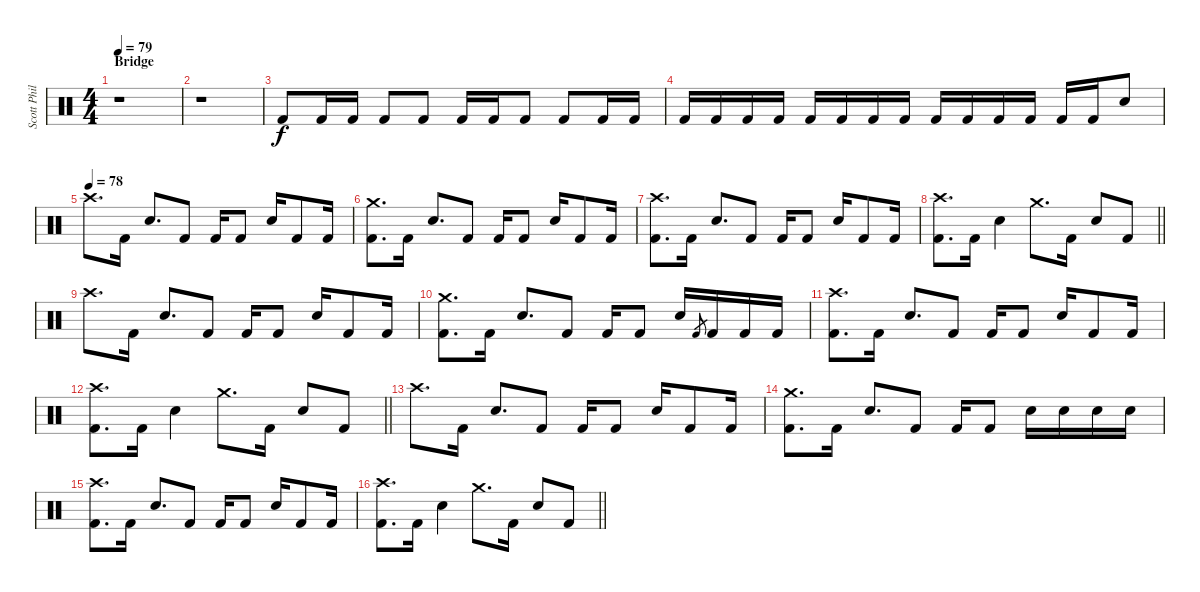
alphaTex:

\track ("Scott Phillips (Drums)" "Scott Phil") {instrument percussion}
\staff {score}
\articulation defaults
\ts (4 4)
\section ("" "Bridge")
\tempo 79
\clef neutral
\ks c
r.1{dy f} |
r.1 |
"Kick (hit) 2".8 "Kick (hit) 2".16 "Kick (hit) 2".16 "Kick (hit) 2".8 "Kick (hit) 2".8 "Kick (hit) 2".16 "Kick (hit) 2".16 "Kick (hit) 2".8 "Kick (hit) 2".8 "Kick (hit) 2".16 "Kick (hit) 2".16 |
"Kick (hit) 2".16 "Kick (hit) 2".16 "Kick (hit) 2".16 "Kick (hit) 2".16 "Kick (hit) 2".16 "Kick (hit) 2".16 "Kick (hit) 2".16 "Kick (hit) 2".16 "Kick (hit) 2".16 "Kick (hit) 2".16 "Kick (hit) 2".16 "Kick (hit) 2".16 "Kick (hit) 2".16 "Kick (hit) 2".16 "Electric Snare (hit)".8 |
\tempo (78)
"Crash high (hit)".8{d} "Kick (hit) 2".16 "Electric Snare (hit)".8{d} "Kick (hit) 2".8 "Kick (hit) 2".16 "Kick (hit) 2".8 "Electric Snare (hit)".16 "Kick (hit) 2".8 "Kick (hit) 2".16 |
("Crash medium (hit)" "Kick (hit) 2").8{d} "Kick (hit) 2".16 "Electric Snare (hit)".8{d} "Kick (hit) 2".8 "Kick (hit) 2".16 "Kick (hit) 2".8 "Electric Snare (hit)".16 "Kick (hit) 2".8 "Kick (hit) 2".16 |
("Crash high (hit)" "Kick (hit) 2").8{d} "Kick (hit) 2".16 "Electric Snare (hit)".8{d} "Kick (hit) 2".8 "Kick (hit) 2".16 "Kick (hit) 2".8 "Electric Snare (hit)".16 "Kick (hit) 2".8 "Kick (hit) 2".16 |
\barLineRight lightlight
("Crash high (hit)" "Kick (hit) 2").8{d} "Kick (hit) 2".16 "Electric Snare (hit)".4 "Crash medium (hit)".8{d} "Kick (hit) 2".16 "Electric Snare (hit)".8 "Kick (hit) 2".8 |
"Crash high (hit)".8{d} "Kick (hit) 2".16 "Electric Snare (hit)".8{d} "Kick (hit) 2".8 "Kick (hit) 2".16 "Kick (hit) 2".8 "Electric Snare (hit)".16 "Kick (hit) 2".8 "Kick (hit) 2".16 |
("Crash medium (hit)" "Kick (hit) 2").8{d} "Kick (hit) 2".16 "Electric Snare (hit)".8{d} "Kick (hit) 2".8 "Kick (hit) 2".16 "Kick (hit) 2".8 "Electric Snare (hit)".16 "Kick (hit) 2".8{gr} "Kick (hit) 2".16 "Kick (hit) 2".16 "Kick (hit) 2".16 |
("Crash high (hit)" "Kick (hit) 2").8{d} "Kick (hit) 2".16 "Electric Snare (hit)".8{d} "Kick (hit) 2".8 "Kick (hit) 2".16 "Kick (hit) 2".8 "Electric Snare (hit)".16 "Kick (hit) 2".8 "Kick (hit) 2".16 |
\barLineRight lightlight
("Crash high (hit)" "Kick (hit) 2").8{d} "Kick (hit) 2".16 "Electric Snare (hit)".4 "Crash medium (hit)".8{d} "Kick (hit) 2".16 "Electric Snare (hit)".8 "Kick (hit) 2".8 |
"Crash high (hit)".8{d} "Kick (hit) 2".16 "Electric Snare (hit)".8{d} "Kick (hit) 2".8 "Kick (hit) 2".16 "Kick (hit) 2".8 "Electric Snare (hit)".16 "Kick (hit) 2".8 "Kick (hit) 2".16 |
("Crash medium (hit)" "Kick (hit) 2").8{d} "Kick (hit) 2".16 "Electric Snare (hit)".8{d} "Kick (hit) 2".8 "Kick (hit) 2".16 "Kick (hit) 2".8 "Electric Snare (hit)".16 "Electric Snare (hit)".16 "Electric Snare (hit)".16 "Electric Snare (hit)".16 |
("Crash high (hit)" "Kick (hit) 2").8{d} "Kick (hit) 2".16 "Electric Snare (hit)".8{d} "Kick (hit) 2".8 "Kick (hit) 2".16 "Kick (hit) 2".8 "Electric Snare (hit)".16 "Kick (hit) 2".8 "Kick (hit) 2".16 |
\barLineRight lightlight
("Crash high (hit)" "Kick (hit) 2").8{d} "Kick (hit) 2".16 "Electric Snare (hit)".4 "Crash medium (hit)".8{d} "Kick (hit) 2".16 "Electric Snare (hit)".8 "Kick (hit) 2".8
